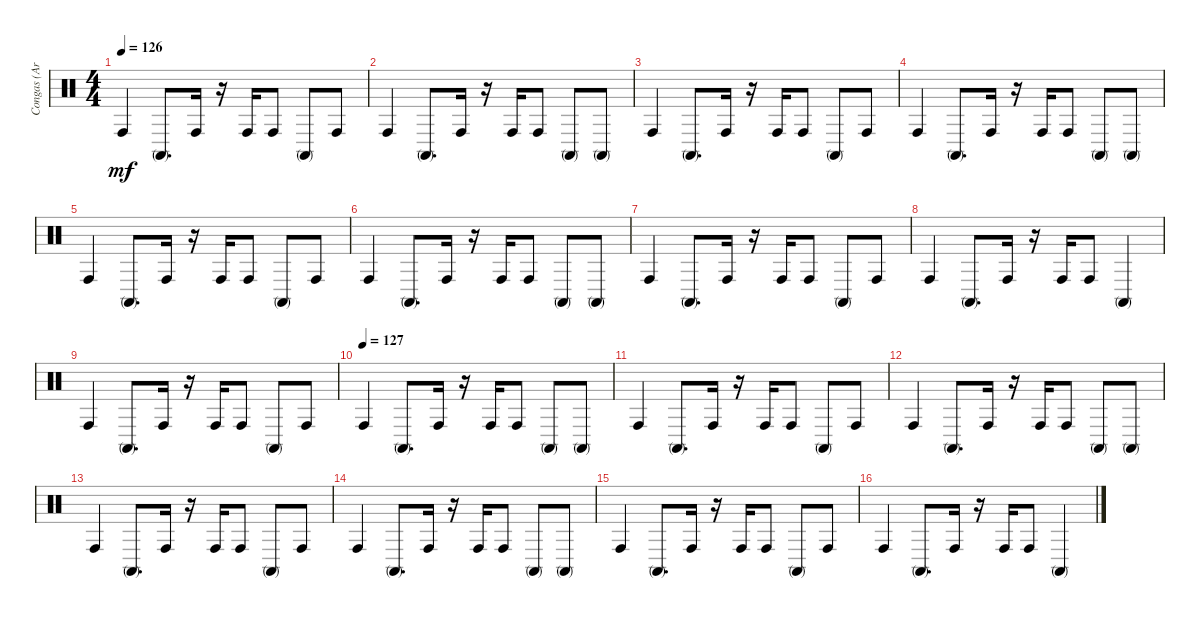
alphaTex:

\track ("Congas (Arthur Jenkins)" "Congas (Ar") {instrument percussion}
\staff {score}
\articulation defaults
\ts (4 4)
\tempo 126
\clef neutral
\ks c "Conga high (hit)".4{dy mf} "Conga high (mute)".8{d} "Conga high (hit)".16
r.16 "Conga high (hit)".16 "Conga high (hit)".8 "Conga high (mute)".8 "Conga high (hit)".8 |
"Conga high (hit)".4 "Conga high (mute)".8{d} "Conga high (hit)".16 r.16 "Conga high (hit)".16 "Conga high (hit)".8 "Conga high (mute)".8 "Conga high (mute)".8 |
"Conga high (hit)".4 "Conga high (mute)".8{d} "Conga high (hit)".16 r.16 "Conga high (hit)".16 "Conga high (hit)".8 "Conga high (mute)".8 "Conga high (hit)".8 |
"Conga high (hit)".4 "Conga high (mute)".8{d} "Conga high (hit)".16 r.16 "Conga high (hit)".16 "Conga high (hit)".8 "Conga high (mute)".8 "Conga high (mute)".8 |
"Conga high (hit)".4 "Conga high (mute)".8{d} "Conga high (hit)".16 r.16 "Conga high (hit)".16 "Conga high (hit)".8 "Conga high (mute)".8 "Conga high (hit)".8 |
"Conga high (hit)".4 "Conga high (mute)".8{d} "Conga high (hit)".16 r.16 "Conga high (hit)".16 "Conga high (hit)".8 "Conga high (mute)".8 "Conga high (mute)".8 |
"Conga high (hit)".4 "Conga high (mute)".8{d} "Conga high (hit)".16 r.16 "Conga high (hit)".16 "Conga high (hit)".8 "Conga high (mute)".8 "Conga high (hit)".8 |
"Conga high (hit)".4 "Conga high (mute)".8{d} "Conga high (hit)".16 r.16 "Conga high (hit)".16 "Conga high (hit)".8 "Conga high (mute)".4 |
"Conga high (hit)".4 "Conga high (mute)".8{d} "Conga high (hit)".16 r.16 "Conga high (hit)".16 "Conga high (hit)".8 "Conga high (mute)".8 "Conga high (hit)".8 |
\tempo (127)
"Conga high (hit)".4 "Conga high (mute)".8{d} "Conga high (hit)".16 r.16 "Conga high (hit)".16 "Conga high (hit)".8 "Conga high (mute)".8 "Conga high (mute)".8 |
"Conga high (hit)".4 "Conga high (mute)".8{d} "Conga high (hit)".16 r.16 "Conga high (hit)".16 "Conga high (hit)".8 "Conga high (mute)".8 "Conga high (hit)".8 |
"Conga high (hit)".4 "Conga high (mute)".8{d} "Conga high (hit)".16 r.16 "Conga high (hit)".16 "Conga high (hit)".8 "Conga high (mute)".8 "Conga high (mute)".8 |
"Conga high (hit)".4 "Conga high (mute)".8{d} "Conga high (hit)".16 r.16 "Conga high (hit)".16 "Conga high (hit)".8 "Conga high (mute)".8 "Conga high (hit)".8 |
"Conga high (hit)".4 "Conga high (mute)".8{d} "Conga high (hit)".16 r.16 "Conga high (hit)".16 "Conga high (hit)".8 "Conga high (mute)".8 "Conga high (mute)".8 |
"Conga high (hit)".4 "Conga high (mute)".8{d} "Conga high (hit)".16 r.16 "Conga high (hit)".16 "Conga high (hit)".8 "Conga high (mute)".8 "Conga high (hit)".8 |
"Conga high (hit)".4 "Conga high (mute)".8{d} "Conga high (hit)".16 r.16 "Conga high (hit)".16 "Conga high (hit)".8 "Conga high (mute)".4
